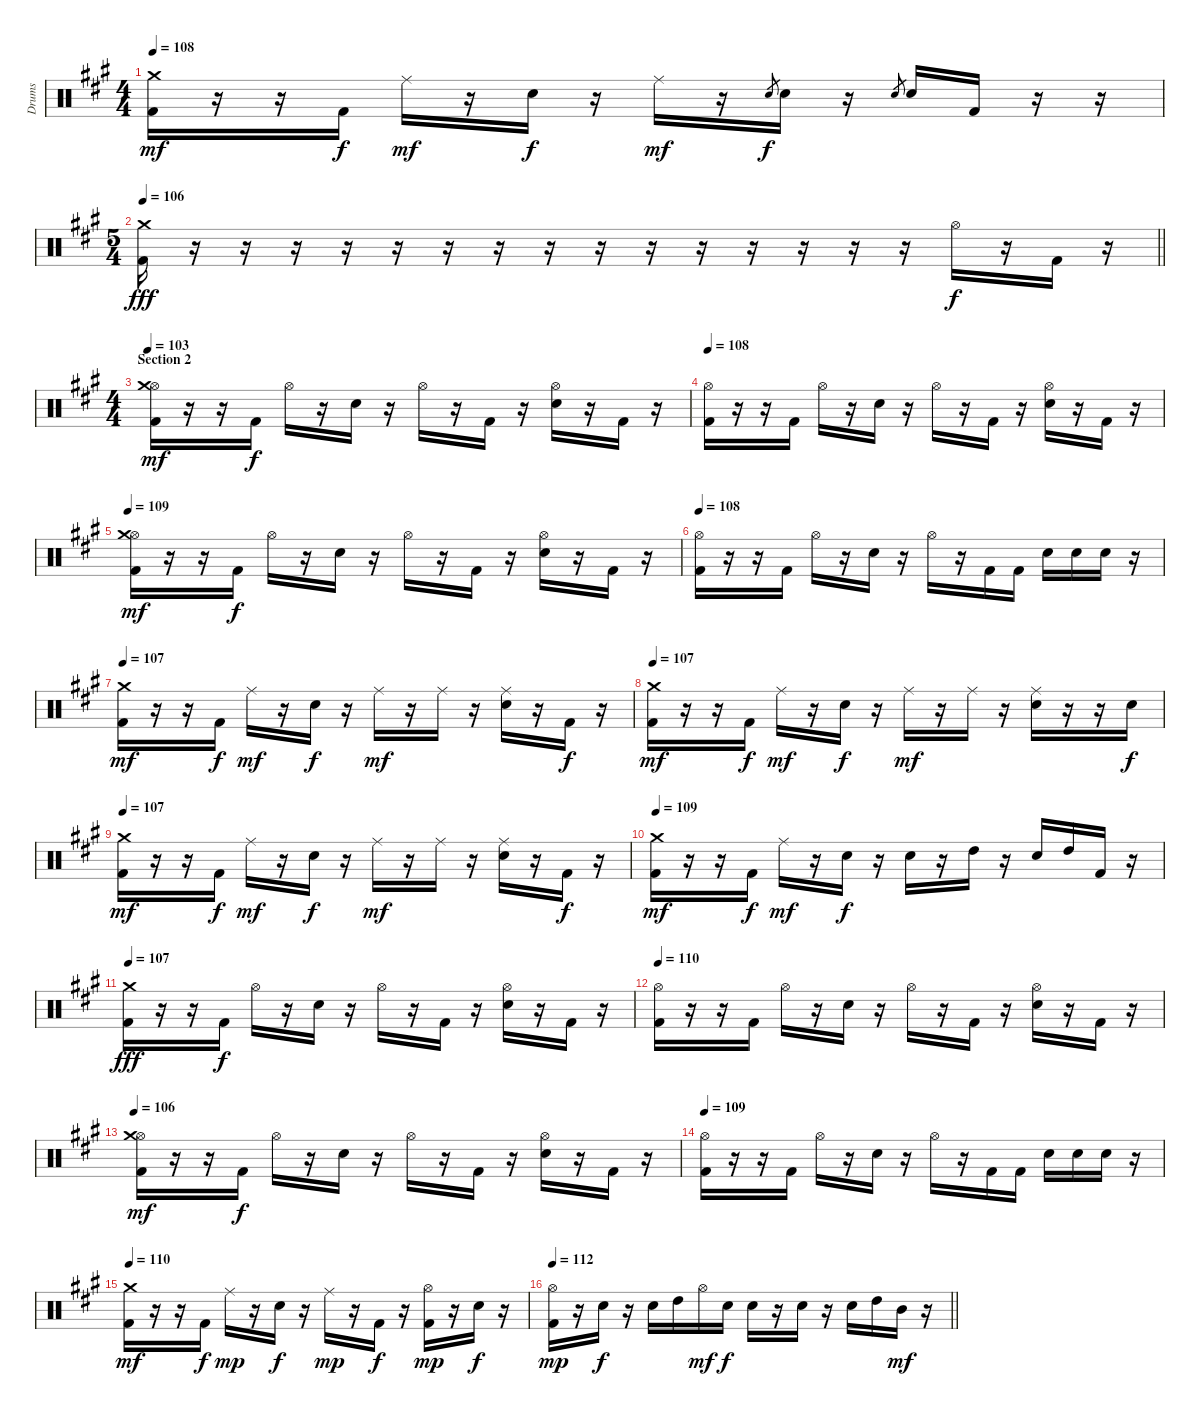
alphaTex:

\track ("Drums" "Drums") {instrument percussion}
\staff {score}
\articulation defaults
\ts (4 4)
\tempo 108
\clef neutral
\ks f#minor
("Crash medium (hit)" "Kick (hit) 2").16{dy mf} r.16 r.16 "Kick (hit) 2".16{dy f} "Ride (middle)".16{dy mf} r.16 "Electric Snare (hit)".16{dy f} r.16 "Ride (middle)".16{dy mf} r.16 "Electric Snare (hit)".8{gr dy f} "Electric Snare (hit)".16 r.16 "Electric Snare (hit)".8{gr} "Electric Snare (hit)".16 "Kick (hit) 2".16 r.16 r.16 |
\ts (5 4)
\tempo 106
\barLineRight lightlight
("Crash medium (hit)" "Kick (hit) 2").16{dy fff} r.16 r.16 r.16 r.16 r.16 r.16 r.16 r.16 r.16 r.16 r.16 r.16 r.16 r.16 r.16 "Hi-Hat (open)".16{dy f} r.16 "Kick (hit) 2".16 r.16 |
\ts (4 4)
\section ("" "Section 2")
\tempo 103
("Hi-Hat (open)" "Crash medium (hit)" "Kick (hit) 2").16{dy mf} r.16 r.16 "Kick (hit) 2".16{dy f} "Hi-Hat (open)".16 r.16 "Electric Snare (hit)".16 r.16 "Hi-Hat (open)".16 r.16 "Kick (hit) 2".16 r.16 ("Hi-Hat (open)" "Electric Snare (hit)").16 r.16 "Kick (hit) 2".16 r.16 |
\tempo 108
("Hi-Hat (open)" "Kick (hit) 2").16 r.16 r.16 "Kick (hit) 2".16 "Hi-Hat (open)".16 r.16 "Electric Snare (hit)".16 r.16 "Hi-Hat (open)".16 r.16 "Kick (hit) 2".16 r.16 ("Hi-Hat (open)" "Electric Snare (hit)").16 r.16 "Kick (hit) 2".16 r.16 |
\tempo 109
("Hi-Hat (open)" "Crash medium (hit)" "Kick (hit) 2").16{dy mf} r.16 r.16 "Kick (hit) 2".16{dy f} "Hi-Hat (open)".16 r.16 "Electric Snare (hit)".16 r.16 "Hi-Hat (open)".16 r.16 "Kick (hit) 2".16 r.16 ("Hi-Hat (open)" "Electric Snare (hit)").16 r.16 "Kick (hit) 2".16 r.16 |
\tempo 108
("Hi-Hat (open)" "Kick (hit) 2").16 r.16 r.16 "Kick (hit) 2".16 "Hi-Hat (open)".16 r.16 "Electric Snare (hit)".16 r.16 "Hi-Hat (open)".16 r.16 "Kick (hit) 2".16 "Kick (hit) 2".16 "Electric Snare (hit)".16 "Electric Snare (hit)".16 "Electric Snare (hit)".16 r.16 |
\tempo 107
("Crash medium (hit)" "Kick (hit) 2").16{dy mf} r.16 r.16 "Kick (hit) 2".16{dy f} "Ride (middle)".16{dy mf} r.16 "Electric Snare (hit)".16{dy f} r.16 "Ride (middle)".16{dy mf} r.16 "Ride (middle)".16 r.16 ("Ride (middle)" "Electric Snare (hit)").16 r.16 "Kick (hit) 2".16{dy f} r.16 |
\tempo 107
("Crash medium (hit)" "Kick (hit) 2").16{dy mf} r.16 r.16 "Kick (hit) 2".16{dy f} "Ride (middle)".16{dy mf} r.16 "Electric Snare (hit)".16{dy f} r.16 "Ride (middle)".16{dy mf} r.16 "Ride (middle)".16 r.16 ("Ride (middle)" "Electric Snare (hit)").16 r.16 r.16 "Electric Snare (hit)".16{dy f} |
\tempo 107
("Crash medium (hit)" "Kick (hit) 2").16{dy mf} r.16 r.16 "Kick (hit) 2".16{dy f} "Ride (middle)".16{dy mf} r.16 "Electric Snare (hit)".16{dy f} r.16 "Ride (middle)".16{dy mf} r.16 "Ride (middle)".16 r.16 ("Ride (middle)" "Electric Snare (hit)").16 r.16 "Kick (hit) 2".16{dy f} r.16 |
\tempo 109
("Crash medium (hit)" "Kick (hit) 2").16{dy mf} r.16 r.16 "Kick (hit) 2".16{dy f} "Ride (middle)".16{dy mf} r.16 "Electric Snare (hit)".16{dy f} r.16 "Electric Snare (hit)".16 r.16 "High Tom (hit)".16 r.16 "Electric Snare (hit)".16 "High Tom (hit)".16 "Kick (hit) 2".16 r.16 |
\tempo 107
("Crash medium (hit)" "Kick (hit) 2").16{dy fff} r.16 r.16 "Kick (hit) 2".16{dy f} "Hi-Hat (open)".16 r.16 "Electric Snare (hit)".16 r.16 "Hi-Hat (open)".16 r.16 "Kick (hit) 2".16 r.16 ("Hi-Hat (open)" "Electric Snare (hit)").16 r.16 "Kick (hit) 2".16 r.16 |
\tempo 110
("Hi-Hat (open)" "Kick (hit) 2").16 r.16 r.16 "Kick (hit) 2".16 "Hi-Hat (open)".16 r.16 "Electric Snare (hit)".16 r.16 "Hi-Hat (open)".16 r.16 "Kick (hit) 2".16 r.16 ("Hi-Hat (open)" "Electric Snare (hit)").16 r.16 "Kick (hit) 2".16 r.16 |
\tempo 106
("Hi-Hat (open)" "Crash medium (hit)" "Kick (hit) 2").16{dy mf} r.16 r.16 "Kick (hit) 2".16{dy f} "Hi-Hat (open)".16 r.16 "Electric Snare (hit)".16 r.16 "Hi-Hat (open)".16 r.16 "Kick (hit) 2".16 r.16 ("Hi-Hat (open)" "Electric Snare (hit)").16 r.16 "Kick (hit) 2".16 r.16 |
\tempo 109
("Hi-Hat (open)" "Kick (hit) 2").16 r.16 r.16 "Kick (hit) 2".16 "Hi-Hat (open)".16 r.16 "Electric Snare (hit)".16 r.16 "Hi-Hat (open)".16 r.16 "Kick (hit) 2".16 "Kick (hit) 2".16 "Electric Snare (hit)".16 "Electric Snare (hit)".16 "Electric Snare (hit)".16 r.16 |
\tempo 110
("Crash medium (hit)" "Kick (hit) 2").16{dy mf} r.16 r.16 "Kick (hit) 2".16{dy f} "Ride (middle)".16{dy mp} r.16 "Electric Snare (hit)".16{dy f} r.16 "Ride (middle)".16{dy mp} r.16 "Kick (hit) 2".16{dy f} r.16 ("Hi-Hat (open)" "Kick (hit) 2").16{dy mp} r.16 "Electric Snare (hit)".16{dy f} r.16 |
\tempo 112
\barLineRight lightlight
("Hi-Hat (open)" "Kick (hit) 2").16{dy mp} r.16 "Electric Snare (hit)".16{dy f} r.16 "Electric Snare (hit)".16 "High Tom (hit)".16 "Hi-Hat (open)".16{dy mf} "Electric Snare (hit)".16{dy f} "Electric Snare (hit)".16 r.16 "Electric Snare (hit)".16 r.16 "Electric Snare (hit)".16 "High Tom (hit)".16 "Mid Tom (hit)".16{dy mf} r.16
